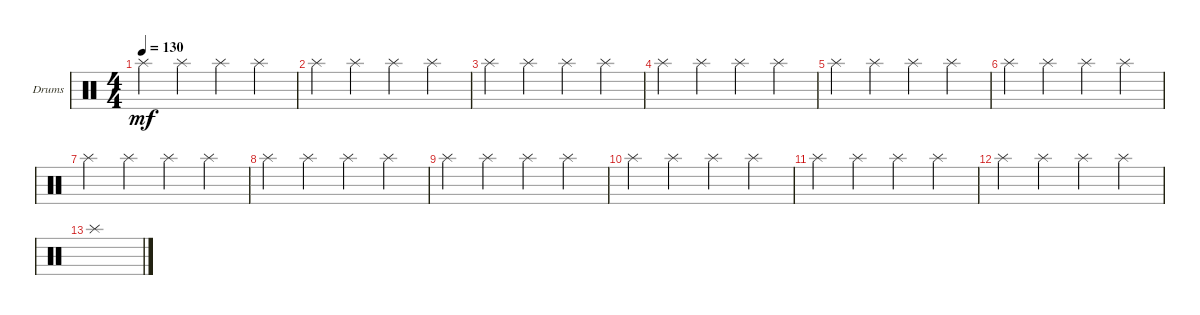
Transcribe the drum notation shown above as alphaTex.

\defaultSystemsLayout 4
\bracketExtendMode groupsimilarinstruments
\firstSystemTrackNameOrientation horizontal
\otherSystemsTrackNameOrientation horizontal
\track ("Drumkit" "Drums") {instrument percussion}
\staff {score}
\articulation defaults
\ts (4 4)
\tempo 130
\clef neutral
\scale
0.333333
\ks c "Splash (hit)".4{dy mf} "Splash (hit)".4 "Splash (hit)".4 "Splash (hit)".4
|
\scale
0.333333 "Splash (hit)".4 "Splash (hit)".4 "Splash (hit)".4 "Splash (hit)".4 |
\scale
0.333333 "Splash (hit)".4 "Splash (hit)".4 "Splash (hit)".4 "Splash (hit)".4 |
\scale
0.333333 "Splash (hit)".4 "Splash (hit)".4 "Splash (hit)".4 "Splash (hit)".4 |
\scale
0.333333 "Splash (hit)".4 "Splash (hit)".4 "Splash (hit)".4 "Splash (hit)".4 |
\scale
0.333333 "Splash (hit)".4 "Splash (hit)".4 "Splash (hit)".4 "Splash (hit)".4 |
\scale
0.333333 "Splash (hit)".4 "Splash (hit)".4 "Splash (hit)".4 "Splash (hit)".4 |
\scale
0.333333 "Splash (hit)".4 "Splash (hit)".4 "Splash (hit)".4 "Splash (hit)".4 |
\scale
0.333333 "Splash (hit)".4 "Splash (hit)".4 "Splash (hit)".4 "Splash (hit)".4 |
\scale
0.333333 "Splash (hit)".4 "Splash (hit)".4 "Splash (hit)".4 "Splash (hit)".4 |
\scale
0.333333 "Splash (hit)".4 "Splash (hit)".4 "Splash (hit)".4 "Splash (hit)".4 |
\scale
0.333333 "Splash (hit)".4 "Splash (hit)".4 "Splash (hit)".4 "Splash (hit)".4 |
\scale
0.333333 "Splash (hit)".1 |
\scale
0.333333 |
\scale
0.333333
